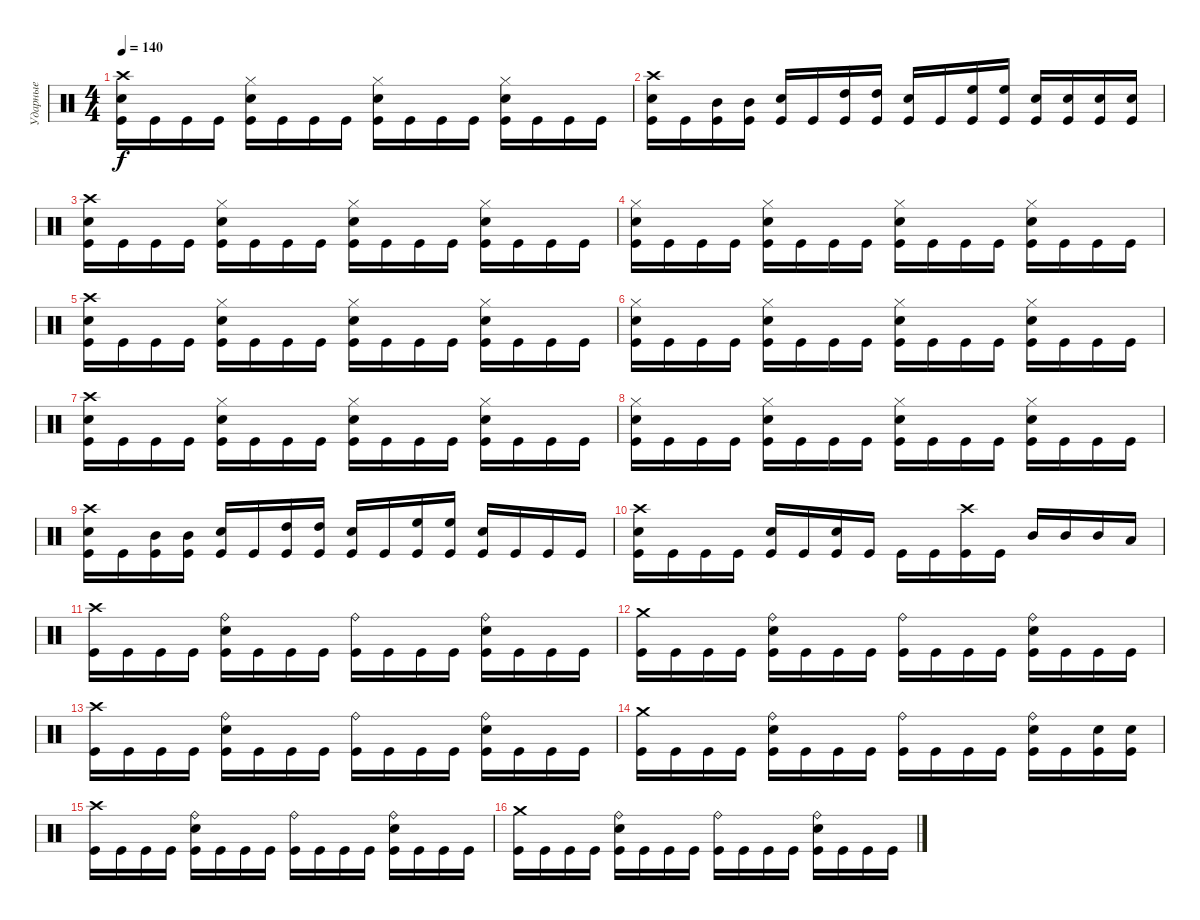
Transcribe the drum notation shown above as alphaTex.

\track ("Ударные" "Ударные") {instrument percussion}
\staff {score}
\articulation defaults
\ts (4 4)
\tempo 140
\clef neutral
\ks c
("Crash high (hit)" "Electric Snare (hit)" "Kick (hit)").16{dy f} "Kick (hit)".16 "Kick (hit)".16 "Kick (hit)".16 ("Hi-Hat (closed)" "Electric Snare (hit)" "Kick (hit)").16 "Kick (hit)".16 "Kick (hit)".16 "Kick (hit)".16 ("Hi-Hat (closed)" "Electric Snare (hit)" "Kick (hit)").16 "Kick (hit)".16 "Kick (hit)".16 "Kick (hit)".16 ("Hi-Hat (closed)" "Electric Snare (hit)" "Kick (hit)").16 "Kick (hit)".16 "Kick (hit)".16 "Kick (hit)".16 |
("Crash high (hit)" "Electric Snare (hit)" "Kick (hit)").16 "Kick (hit)".16 ("Mid Tom (hit)" "Kick (hit)").16 ("Mid Tom (hit)" "Kick (hit)").16 ("Electric Snare (hit)" "Kick (hit)").16 "Kick (hit)".16 ("High Tom (hit)" "Kick (hit)").16 ("High Tom (hit)" "Kick (hit)").16 ("Electric Snare (hit)" "Kick (hit)").16 "Kick (hit)".16 ("High Floor Tom (hit)" "Kick (hit)").16 ("High Floor Tom (hit)" "Kick (hit)").16 ("Electric Snare (hit)" "Kick (hit)").16 ("Electric Snare (hit)" "Kick (hit)").16 ("Electric Snare (hit)" "Kick (hit)").16 ("Electric Snare (hit)" "Kick (hit)").16 |
("Crash high (hit)" "Electric Snare (hit)" "Kick (hit)").16 "Kick (hit)".16 "Kick (hit)".16 "Kick (hit)".16 ("Hi-Hat (closed)" "Electric Snare (hit)" "Kick (hit)").16 "Kick (hit)".16 "Kick (hit)".16 "Kick (hit)".16 ("Hi-Hat (closed)" "Electric Snare (hit)" "Kick (hit)").16 "Kick (hit)".16 "Kick (hit)".16 "Kick (hit)".16 ("Hi-Hat (closed)" "Electric Snare (hit)" "Kick (hit)").16 "Kick (hit)".16 "Kick (hit)".16 "Kick (hit)".16 |
("Hi-Hat (closed)" "Electric Snare (hit)" "Kick (hit)").16 "Kick (hit)".16 "Kick (hit)".16 "Kick (hit)".16 ("Hi-Hat (closed)" "Electric Snare (hit)" "Kick (hit)").16 "Kick (hit)".16 "Kick (hit)".16 "Kick (hit)".16 ("Hi-Hat (closed)" "Electric Snare (hit)" "Kick (hit)").16 "Kick (hit)".16 "Kick (hit)".16 "Kick (hit)".16 ("Hi-Hat (closed)" "Electric Snare (hit)" "Kick (hit)").16 "Kick (hit)".16 "Kick (hit)".16 "Kick (hit)".16 |
("Crash high (hit)" "Electric Snare (hit)" "Kick (hit)").16 "Kick (hit)".16 "Kick (hit)".16 "Kick (hit)".16 ("Hi-Hat (closed)" "Electric Snare (hit)" "Kick (hit)").16 "Kick (hit)".16 "Kick (hit)".16 "Kick (hit)".16 ("Hi-Hat (closed)" "Electric Snare (hit)" "Kick (hit)").16 "Kick (hit)".16 "Kick (hit)".16 "Kick (hit)".16 ("Hi-Hat (closed)" "Electric Snare (hit)" "Kick (hit)").16 "Kick (hit)".16 "Kick (hit)".16 "Kick (hit)".16 |
("Hi-Hat (closed)" "Electric Snare (hit)" "Kick (hit)").16 "Kick (hit)".16 "Kick (hit)".16 "Kick (hit)".16 ("Hi-Hat (closed)" "Electric Snare (hit)" "Kick (hit)").16 "Kick (hit)".16 "Kick (hit)".16 "Kick (hit)".16 ("Hi-Hat (closed)" "Electric Snare (hit)" "Kick (hit)").16 "Kick (hit)".16 "Kick (hit)".16 "Kick (hit)".16 ("Hi-Hat (closed)" "Electric Snare (hit)" "Kick (hit)").16 "Kick (hit)".16 "Kick (hit)".16 "Kick (hit)".16 |
("Crash high (hit)" "Electric Snare (hit)" "Kick (hit)").16 "Kick (hit)".16 "Kick (hit)".16 "Kick (hit)".16 ("Hi-Hat (closed)" "Electric Snare (hit)" "Kick (hit)").16 "Kick (hit)".16 "Kick (hit)".16 "Kick (hit)".16 ("Hi-Hat (closed)" "Electric Snare (hit)" "Kick (hit)").16 "Kick (hit)".16 "Kick (hit)".16 "Kick (hit)".16 ("Hi-Hat (closed)" "Electric Snare (hit)" "Kick (hit)").16 "Kick (hit)".16 "Kick (hit)".16 "Kick (hit)".16 |
("Hi-Hat (closed)" "Electric Snare (hit)" "Kick (hit)").16 "Kick (hit)".16 "Kick (hit)".16 "Kick (hit)".16 ("Hi-Hat (closed)" "Electric Snare (hit)" "Kick (hit)").16 "Kick (hit)".16 "Kick (hit)".16 "Kick (hit)".16 ("Hi-Hat (closed)" "Electric Snare (hit)" "Kick (hit)").16 "Kick (hit)".16 "Kick (hit)".16 "Kick (hit)".16 ("Hi-Hat (closed)" "Electric Snare (hit)" "Kick (hit)").16 "Kick (hit)".16 "Kick (hit)".16 "Kick (hit)".16 |
("Crash high (hit)" "Electric Snare (hit)" "Kick (hit)").16 "Kick (hit)".16 ("Mid Tom (hit)" "Kick (hit)").16 ("Mid Tom (hit)" "Kick (hit)").16 ("Electric Snare (hit)" "Kick (hit)").16 "Kick (hit)".16 ("High Tom (hit)" "Kick (hit)").16 ("High Tom (hit)" "Kick (hit)").16 ("Electric Snare (hit)" "Kick (hit)").16 "Kick (hit)".16 ("High Floor Tom (hit)" "Kick (hit)").16 ("High Floor Tom (hit)" "Kick (hit)").16 ("Electric Snare (hit)" "Kick (hit)").16 "Kick (hit)".16 "Kick (hit)".16 "Kick (hit)".16 |
("Crash high (hit)" "Electric Snare (hit)" "Kick (hit)").16 "Kick (hit)".16 "Kick (hit)".16 "Kick (hit)".16 ("Electric Snare (hit)" "Kick (hit)").16 "Kick (hit)".16 ("Electric Snare (hit)" "Kick (hit)").16 "Kick (hit)".16 "Kick (hit)".16 "Kick (hit)".16 ("Crash high (hit)" "Kick (hit)").16 "Kick (hit)".16 "Mid Tom (hit)".16 "Mid Tom (hit)".16 "Mid Tom (hit)".16 "Low Tom (hit)".16 |
("Crash high (hit)" "Kick (hit)").16 "Kick (hit)".16 "Kick (hit)".16 "Kick (hit)".16 ("Ride (bell)" "Electric Snare (hit)" "Kick (hit)").16 "Kick (hit)".16 "Kick (hit)".16 "Kick (hit)".16 ("Ride (bell)" "Kick (hit)").16 "Kick (hit)".16 "Kick (hit)".16 "Kick (hit)".16 ("Ride (bell)" "Electric Snare (hit)" "Kick (hit)").16 "Kick (hit)".16 "Kick (hit)".16 "Kick (hit)".16 |
("Crash medium (hit)" "Kick (hit)").16 "Kick (hit)".16 "Kick (hit)".16 "Kick (hit)".16 ("Ride (bell)" "Electric Snare (hit)" "Kick (hit)").16 "Kick (hit)".16 "Kick (hit)".16 "Kick (hit)".16 ("Ride (bell)" "Kick (hit)").16 "Kick (hit)".16 "Kick (hit)".16 "Kick (hit)".16 ("Ride (bell)" "Electric Snare (hit)" "Kick (hit)").16 "Kick (hit)".16 "Kick (hit)".16 "Kick (hit)".16 |
("Crash high (hit)" "Kick (hit)").16 "Kick (hit)".16 "Kick (hit)".16 "Kick (hit)".16 ("Ride (bell)" "Electric Snare (hit)" "Kick (hit)").16 "Kick (hit)".16 "Kick (hit)".16 "Kick (hit)".16 ("Ride (bell)" "Kick (hit)").16 "Kick (hit)".16 "Kick (hit)".16 "Kick (hit)".16 ("Ride (bell)" "Electric Snare (hit)" "Kick (hit)").16 "Kick (hit)".16 "Kick (hit)".16 "Kick (hit)".16 |
("Crash medium (hit)" "Kick (hit)").16 "Kick (hit)".16 "Kick (hit)".16 "Kick (hit)".16 ("Ride (bell)" "Electric Snare (hit)" "Kick (hit)").16 "Kick (hit)".16 "Kick (hit)".16 "Kick (hit)".16 ("Ride (bell)" "Kick (hit)").16 "Kick (hit)".16 "Kick (hit)".16 "Kick (hit)".16 ("Ride (bell)" "Electric Snare (hit)" "Kick (hit)").16 "Kick (hit)".16 ("Electric Snare (hit)" "Kick (hit)").16 ("Electric Snare (hit)" "Kick (hit)").16 |
("Crash high (hit)" "Kick (hit)").16 "Kick (hit)".16 "Kick (hit)".16 "Kick (hit)".16 ("Ride (bell)" "Electric Snare (hit)" "Kick (hit)").16 "Kick (hit)".16 "Kick (hit)".16 "Kick (hit)".16 ("Ride (bell)" "Kick (hit)").16 "Kick (hit)".16 "Kick (hit)".16 "Kick (hit)".16 ("Ride (bell)" "Electric Snare (hit)" "Kick (hit)").16 "Kick (hit)".16 "Kick (hit)".16 "Kick (hit)".16 |
("Crash medium (hit)" "Kick (hit)").16 "Kick (hit)".16 "Kick (hit)".16 "Kick (hit)".16 ("Ride (bell)" "Electric Snare (hit)" "Kick (hit)").16 "Kick (hit)".16 "Kick (hit)".16 "Kick (hit)".16 ("Ride (bell)" "Kick (hit)").16 "Kick (hit)".16 "Kick (hit)".16 "Kick (hit)".16 ("Ride (bell)" "Electric Snare (hit)" "Kick (hit)").16 "Kick (hit)".16 "Kick (hit)".16 "Kick (hit)".16
